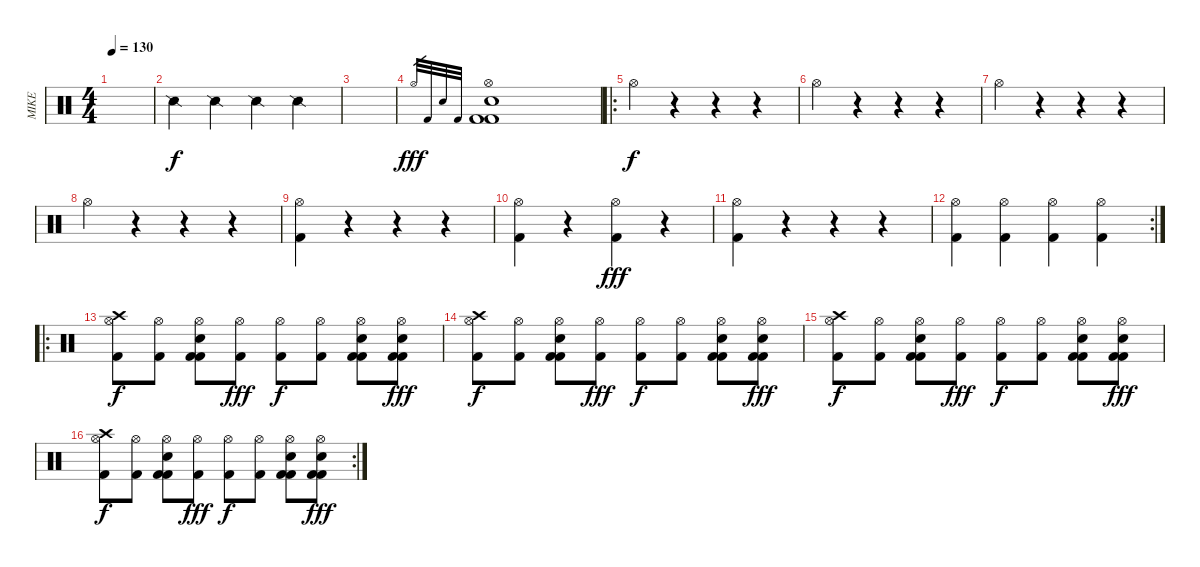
\track ("MIKE" "MIKE") {instrument percussion}
\staff {score}
\articulation defaults
\ts (4 4)
\tempo 130
\clef neutral
\ks c
|
"Snare (side stick) 2".4 "Snare (side stick) 2".4 "Snare (side stick) 2".4 "Snare (side stick) 2".4 |
|
"Hi-Hat (open)".32{gr dy fff} "Kick (hit) 2".32{gr} "Electric Snare (hit)".32{gr} "Kick (hit) 2".32{gr} ("Hi-Hat (open)" "Kick (hit) 2" "Electric Snare (hit)" "Kick (hit) 2").1 |
\ro "Hi-Hat (open)".4{dy f}
r.4 r.4 r.4 |
"Hi-Hat (open)".4 r.4 r.4 r.4 |
"Hi-Hat (open)".4 r.4 r.4 r.4 |
"Hi-Hat (open)".4 r.4 r.4 r.4 |
("Kick (hit) 2" "Hi-Hat (open)").4 r.4 r.4 r.4 |
("Kick (hit) 2" "Hi-Hat (open)").4 r.4 ("Kick (hit) 2" "Hi-Hat (open)").4{dy fff} r.4 |
("Kick (hit) 2" "Hi-Hat (open)").4 r.4 r.4 r.4 |
\rc 2
("Kick (hit) 2" "Hi-Hat (open)").4 ("Kick (hit) 2" "Hi-Hat (open)").4 ("Kick (hit) 2" "Hi-Hat (open)").4 ("Kick (hit) 2" "Hi-Hat (open)").4 |
\ro
("Hi-Hat (open)" "Crash high (hit)" "Kick (hit) 2").8{dy f} ("Hi-Hat (open)" "Kick (hit) 2").8 ("Hi-Hat (open)" "Kick (hit) 2" "Electric Snare (hit)" "Kick (hit) 2").8 ("Hi-Hat (open)" "Kick (hit) 2").8{dy fff} ("Hi-Hat (open)" "Kick (hit) 2").8{dy f} ("Hi-Hat (open)" "Kick (hit) 2").8 ("Hi-Hat (open)" "Kick (hit) 2" "Electric Snare (hit)" "Kick (hit) 2").8 ("Hi-Hat (open)" "Kick (hit) 2" "Electric Snare (hit)" "Kick (hit) 2").8{dy fff} |
("Hi-Hat (open)" "Crash high (hit)" "Kick (hit) 2").8{dy f} ("Hi-Hat (open)" "Kick (hit) 2").8 ("Hi-Hat (open)" "Kick (hit) 2" "Electric Snare (hit)" "Kick (hit) 2").8 ("Hi-Hat (open)" "Kick (hit) 2").8{dy fff} ("Hi-Hat (open)" "Kick (hit) 2").8{dy f} ("Hi-Hat (open)" "Kick (hit) 2").8 ("Hi-Hat (open)" "Kick (hit) 2" "Electric Snare (hit)" "Kick (hit) 2").8 ("Hi-Hat (open)" "Kick (hit) 2" "Electric Snare (hit)" "Kick (hit) 2").8{dy fff} |
("Hi-Hat (open)" "Crash high (hit)" "Kick (hit) 2").8{dy f} ("Hi-Hat (open)" "Kick (hit) 2").8 ("Hi-Hat (open)" "Kick (hit) 2" "Electric Snare (hit)" "Kick (hit) 2").8 ("Hi-Hat (open)" "Kick (hit) 2").8{dy fff} ("Hi-Hat (open)" "Kick (hit) 2").8{dy f} ("Hi-Hat (open)" "Kick (hit) 2").8 ("Hi-Hat (open)" "Kick (hit) 2" "Electric Snare (hit)" "Kick (hit) 2").8 ("Hi-Hat (open)" "Kick (hit) 2" "Electric Snare (hit)" "Kick (hit) 2").8{dy fff} |
\rc 2
("Hi-Hat (open)" "Crash high (hit)" "Kick (hit) 2").8{dy f} ("Hi-Hat (open)" "Kick (hit) 2").8 ("Hi-Hat (open)" "Kick (hit) 2" "Electric Snare (hit)" "Kick (hit) 2").8 ("Hi-Hat (open)" "Kick (hit) 2").8{dy fff} ("Hi-Hat (open)" "Kick (hit) 2").8{dy f} ("Hi-Hat (open)" "Kick (hit) 2").8 ("Hi-Hat (open)" "Kick (hit) 2" "Electric Snare (hit)" "Kick (hit) 2").8 ("Hi-Hat (open)" "Kick (hit) 2" "Electric Snare (hit)" "Kick (hit) 2").8{dy fff}
